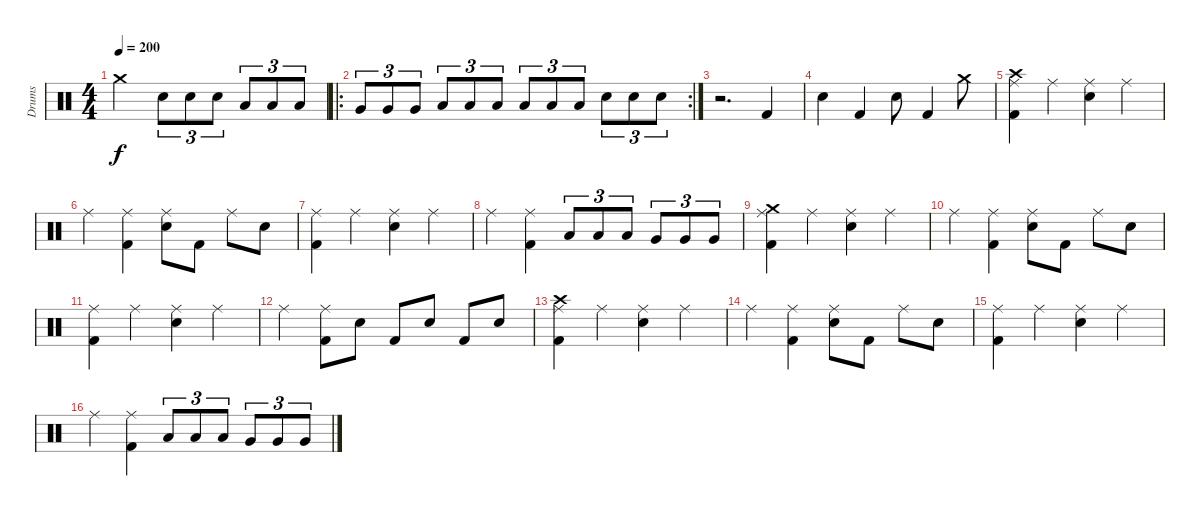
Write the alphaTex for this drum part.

\track ("Drums" "Drums") {instrument percussion}
\staff {score}
\articulation defaults
\ts (4 4)
\tempo 200
\clef neutral
\ks c "Crash medium (hit)".2{dy f} "Snare (hit) 2".8{tu (3 2)} "Snare (hit) 2".8{tu (3 2)} "Snare (hit) 2".8{tu (3 2)} "Low Tom (hit)".8{tu (3 2)} "Low Tom (hit)".8{tu (3 2)} "Low Tom (hit)".8{tu (3 2)}
|
\ro
\rc 2 "Very Low Tom (hit)".8{tu (3 2)} "Very Low Tom (hit)".8{tu (3 2)} "Very Low Tom (hit)".8{tu (3 2)} "Low Floor Tom (hit)".8{tu (3 2)} "Low Floor Tom (hit)".8{tu (3 2)} "Low Floor Tom (hit)".8{tu (3 2)} "Low Tom (hit)".8{tu (3 2)} "Low Tom (hit)".8{tu (3 2)} "Low Tom (hit)".8{tu (3 2)} "Snare (hit) 2".8{tu (3 2)} "Snare (hit) 2".8{tu (3 2)} "Snare (hit) 2".8{tu (3 2)}
|
r.2{d} "Kick (hit) 2".4 |
"Snare (hit) 2".4 "Kick (hit) 2".4 "Snare (hit) 2".8 "Kick (hit) 2".4 "Crash medium (hit)".8 |
("Ride (middle)" "Crash high (hit)" "Kick (hit) 2").4 "Ride (middle)".4 ("Ride (middle)" "Snare (hit) 2").4 "Ride (middle)".4 |
"Ride (middle)".4 ("Ride (middle)" "Kick (hit) 2").4 ("Ride (middle)" "Snare (hit) 2").8 "Kick (hit) 2".8 "Ride (middle)".8 "Snare (hit) 2".8 |
("Ride (middle)" "Kick (hit) 2").4 "Ride (middle)".4 ("Ride (middle)" "Snare (hit) 2").4 "Ride (middle)".4 |
"Ride (middle)".4 ("Ride (middle)" "Kick (hit) 2").4 "Low Tom (hit)".8{tu (3 2)} "Low Tom (hit)".8{tu (3 2)} "Low Tom (hit)".8{tu (3 2)} "Very Low Tom (hit)".8{tu (3 2)} "Very Low Tom (hit)".8{tu (3 2)} "Very Low Tom (hit)".8{tu (3 2)} |
("Ride (middle)" "Crash medium (hit)" "Kick (hit) 2").4 "Ride (middle)".4 ("Ride (middle)" "Snare (hit) 2").4 "Ride (middle)".4 |
"Ride (middle)".4 ("Ride (middle)" "Kick (hit) 2").4 ("Ride (middle)" "Snare (hit) 2").8 "Kick (hit) 2".8 "Ride (middle)".8 "Snare (hit) 2".8 |
("Ride (middle)" "Kick (hit) 2").4 "Ride (middle)".4 ("Ride (middle)" "Snare (hit) 2").4 "Ride (middle)".4 |
"Ride (middle)".4 ("Ride (middle)" "Kick (hit) 2").8 "Snare (hit) 2".8 "Kick (hit) 2".8 "Snare (hit) 2".8 "Kick (hit) 2".8 "Snare (hit) 2".8 |
("Ride (middle)" "Crash high (hit)" "Kick (hit) 2").4 "Ride (middle)".4 ("Ride (middle)" "Snare (hit) 2").4 "Ride (middle)".4 |
"Ride (middle)".4 ("Ride (middle)" "Kick (hit) 2").4 ("Ride (middle)" "Snare (hit) 2").8 "Kick (hit) 2".8 "Ride (middle)".8 "Snare (hit) 2".8 |
("Ride (middle)" "Kick (hit) 2").4 "Ride (middle)".4 ("Ride (middle)" "Snare (hit) 2").4 "Ride (middle)".4 |
"Ride (middle)".4 ("Ride (middle)" "Kick (hit) 2").4 "Low Tom (hit)".8{tu (3 2)} "Low Tom (hit)".8{tu (3 2)} "Low Tom (hit)".8{tu (3 2)} "Very Low Tom (hit)".8{tu (3 2)} "Very Low Tom (hit)".8{tu (3 2)} "Very Low Tom (hit)".8{tu (3 2)}
